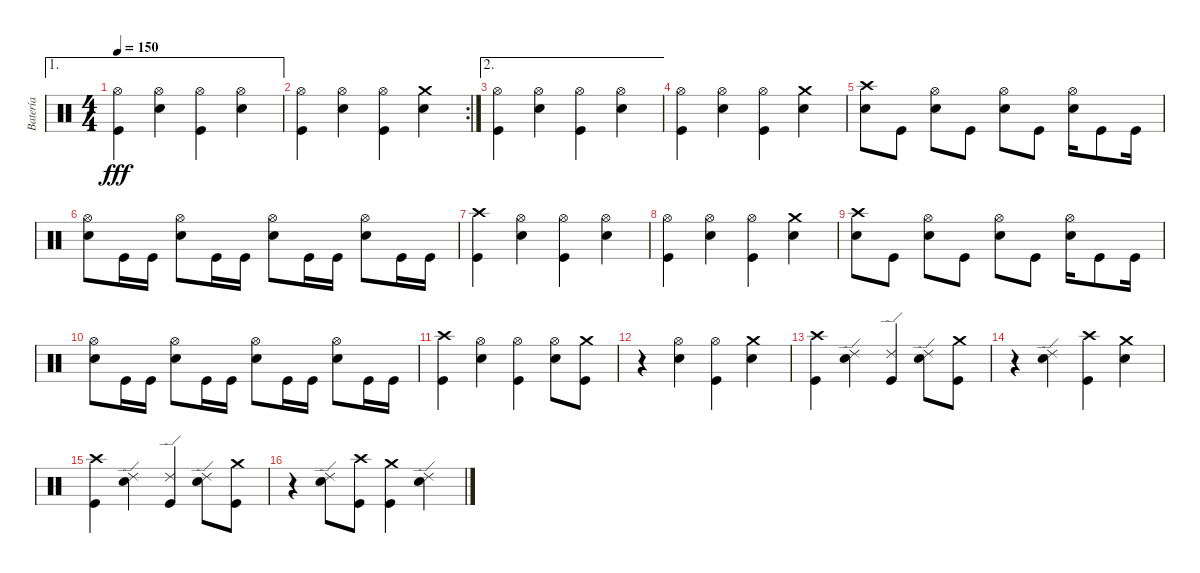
\track ("Batería" "Batería") {instrument percussion}
\staff {score}
\articulation defaults
\ae 1
\ts (4 4)
\tempo 150
\clef neutral
\ks c
("Hi-Hat (open)" "Kick (hit)").4{dy fff} ("Hi-Hat (open)" "Snare (hit) 2").4 ("Hi-Hat (open)" "Kick (hit)").4 ("Hi-Hat (open)" "Snare (hit) 2").4 |
\rc 2
("Hi-Hat (open)" "Kick (hit)").4 ("Hi-Hat (open)" "Snare (hit) 2").4 ("Hi-Hat (open)" "Kick (hit)").4 ("Crash medium (hit)" "Snare (hit) 2").4 |
\ae 2
("Hi-Hat (open)" "Kick (hit)").4 ("Hi-Hat (open)" "Snare (hit) 2").4 ("Hi-Hat (open)" "Kick (hit)").4 ("Hi-Hat (open)" "Snare (hit) 2").4 |
("Hi-Hat (open)" "Kick (hit)").4 ("Hi-Hat (open)" "Snare (hit) 2").4 ("Hi-Hat (open)" "Kick (hit)").4 ("Crash medium (hit)" "Snare (hit) 2").4 |
("Crash high (hit)" "Snare (hit) 2").8 "Kick (hit)".8 ("Hi-Hat (open)" "Snare (hit) 2").8 "Kick (hit)".8 ("Hi-Hat (open)" "Snare (hit) 2").8 "Kick (hit)".8 ("Hi-Hat (open)" "Snare (hit) 2").16 "Kick (hit)".8 "Kick (hit)".16 |
("Hi-Hat (open)" "Snare (hit) 2").8 "Kick (hit)".16 "Kick (hit)".16 ("Hi-Hat (open)" "Snare (hit) 2").8 "Kick (hit)".16 "Kick (hit)".16 ("Hi-Hat (open)" "Snare (hit) 2").8 "Kick (hit)".16 "Kick (hit)".16 ("Hi-Hat (open)" "Snare (hit) 2").8 "Kick (hit)".16 "Kick (hit)".16 |
("Crash high (hit)" "Kick (hit)").4 ("Hi-Hat (open)" "Snare (hit) 2").4 ("Hi-Hat (open)" "Kick (hit)").4 ("Hi-Hat (open)" "Snare (hit) 2").4 |
("Hi-Hat (open)" "Kick (hit)").4 ("Hi-Hat (open)" "Snare (hit) 2").4 ("Hi-Hat (open)" "Kick (hit)").4 ("Crash medium (hit)" "Snare (hit) 2").4 |
("Crash high (hit)" "Snare (hit) 2").8 "Kick (hit)".8 ("Hi-Hat (open)" "Snare (hit) 2").8 "Kick (hit)".8 ("Hi-Hat (open)" "Snare (hit) 2").8 "Kick (hit)".8 ("Hi-Hat (open)" "Snare (hit) 2").16 "Kick (hit)".8 "Kick (hit)".16 |
("Hi-Hat (open)" "Snare (hit) 2").8 "Kick (hit)".16 "Kick (hit)".16 ("Hi-Hat (open)" "Snare (hit) 2").8 "Kick (hit)".16 "Kick (hit)".16 ("Hi-Hat (open)" "Snare (hit) 2").8 "Kick (hit)".16 "Kick (hit)".16 ("Hi-Hat (open)" "Snare (hit) 2").8 "Kick (hit)".16 "Kick (hit)".16 |
("Crash high (hit)" "Kick (hit)").4 ("Hi-Hat (open)" "Snare (hit) 2").4 ("Hi-Hat (open)" "Kick (hit)").4 ("Hi-Hat (open)" "Snare (hit) 2").8 ("Crash medium (hit)" "Kick (hit)").8 |
r.4 ("Hi-Hat (open)" "Snare (hit) 2").4 ("Hi-Hat (open)" "Kick (hit)").4 ("Crash medium (hit)" "Snare (hit) 2").4 |
("Crash high (hit)" "Kick (hit)").4 ("Ride (edge) 2" "Snare (hit) 2").4 ("Ride (edge) 2" "Kick (hit)").4 ("Ride (edge) 2" "Snare (hit) 2").8 ("Crash medium (hit)" "Kick (hit)").8 |
r.4 ("Ride (edge) 2" "Snare (hit) 2").4 ("Crash high (hit)" "Kick (hit)").4 ("Crash medium (hit)" "Snare (hit) 2").4 |
("Crash high (hit)" "Kick (hit)").4 ("Ride (edge) 2" "Snare (hit) 2").4 ("Ride (edge) 2" "Kick (hit)").4 ("Ride (edge) 2" "Snare (hit) 2").8 ("Crash medium (hit)" "Kick (hit)").8 |
r.4 ("Ride (edge) 2" "Snare (hit) 2").8 ("Crash high (hit)" "Kick (hit)").8 ("Crash medium (hit)" "Kick (hit)").4 ("Ride (edge) 2" "Snare (hit) 2").4
